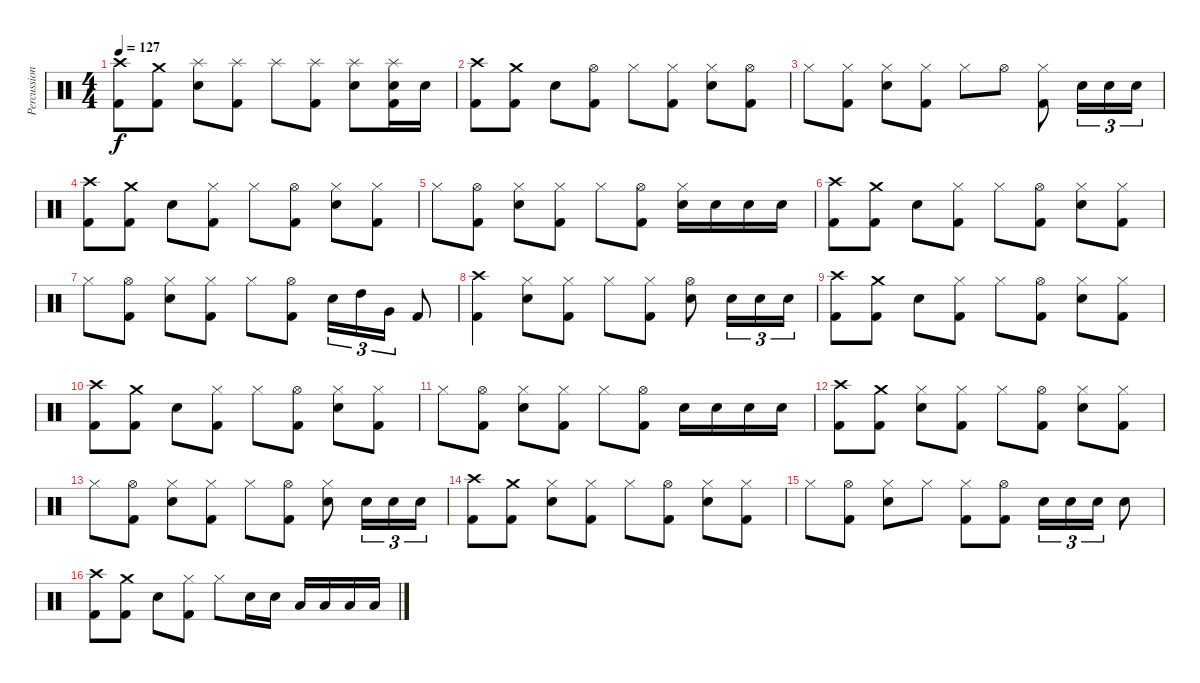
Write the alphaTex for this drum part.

\track ("Percussion" "Percussion") {instrument percussion}
\staff {score}
\articulation defaults
\ts (4 4)
\tempo 127
\clef neutral
\ks c
("Kick (hit) 2" "Crash high (hit)").8{dy f} ("Kick (hit) 2" "Crash medium (hit)").8 ("Snare (hit) 2" "Splash (hit)").8 ("Kick (hit) 2" "Splash (hit)").8 "Splash (hit)".8 ("Kick (hit) 2" "Splash (hit)").8 ("Snare (hit) 2" "Splash (hit)").8 ("Snare (hit) 2" "Kick (hit) 2" "Splash (hit)").16 "Snare (hit) 2".16 |
("Kick (hit) 2" "Crash high (hit)").8 ("Kick (hit) 2" "Crash medium (hit)").8 "Snare (hit) 2".8 ("Kick (hit) 2" "Hi-Hat (open)").8 "Hi-Hat (closed)".8 ("Kick (hit) 2" "Hi-Hat (closed)").8 ("Snare (hit) 2" "Hi-Hat (closed)").8 ("Kick (hit) 2" "Hi-Hat (open)").8 |
"Hi-Hat (closed)".8 ("Kick (hit) 2" "Hi-Hat (closed)").8 ("Snare (hit) 2" "Hi-Hat (closed)").8 ("Kick (hit) 2" "Hi-Hat (closed)").8 "Hi-Hat (closed)".8 "Hi-Hat (open)".8 ("Kick (hit) 2" "Hi-Hat (closed)").8 "Snare (hit) 2".16{tu (3 2)} "Snare (hit) 2".16{tu (3 2)} "Snare (hit) 2".16{tu (3 2)} |
("Kick (hit) 2" "Crash high (hit)").8 ("Kick (hit) 2" "Crash medium (hit)").8 "Snare (hit) 2".8 ("Kick (hit) 2" "Hi-Hat (closed)").8 "Hi-Hat (closed)".8 ("Kick (hit) 2" "Hi-Hat (open)").8 ("Snare (hit) 2" "Hi-Hat (closed)").8 ("Kick (hit) 2" "Hi-Hat (closed)").8 |
"Hi-Hat (closed)".8 ("Kick (hit) 2" "Hi-Hat (open)").8 ("Snare (hit) 2" "Hi-Hat (closed)").8 ("Kick (hit) 2" "Hi-Hat (closed)").8 "Hi-Hat (closed)".8 ("Kick (hit) 2" "Hi-Hat (open)").8 ("Snare (hit) 2" "Hi-Hat (closed)").16 "Snare (hit) 2".16 "Snare (hit) 2".16 "Snare (hit) 2".16 |
("Kick (hit) 2" "Crash high (hit)").8 ("Kick (hit) 2" "Crash medium (hit)").8 "Snare (hit) 2".8 ("Kick (hit) 2" "Hi-Hat (closed)").8 "Hi-Hat (closed)".8 ("Kick (hit) 2" "Hi-Hat (open)").8 ("Snare (hit) 2" "Hi-Hat (closed)").8 ("Kick (hit) 2" "Hi-Hat (closed)").8 |
"Hi-Hat (closed)".8 ("Kick (hit) 2" "Hi-Hat (open)").8 ("Snare (hit) 2" "Hi-Hat (closed)").8 ("Kick (hit) 2" "Hi-Hat (closed)").8 "Hi-Hat (closed)".8 ("Kick (hit) 2" "Hi-Hat (open)").8 "Snare (hit) 2".16{tu (3 2)} "High Tom (hit)".16{tu (3 2)} "Very Low Tom (hit)".16{tu (3 2)} "Kick (hit) 2".8 |
("Kick (hit) 2" "Crash high (hit)").4 ("Snare (hit) 2" "Hi-Hat (closed)").8 ("Kick (hit) 2" "Hi-Hat (closed)").8 "Hi-Hat (closed)".8 ("Kick (hit) 2" "Hi-Hat (closed)").8 ("Snare (hit) 2" "Hi-Hat (open)").8 "Snare (hit) 2".16{tu (3 2)} "Snare (hit) 2".16{tu (3 2)} "Snare (hit) 2".16{tu (3 2)} |
("Kick (hit) 2" "Crash high (hit)").8 ("Kick (hit) 2" "Crash medium (hit)").8 "Snare (hit) 2".8 ("Kick (hit) 2" "Hi-Hat (closed)").8 "Hi-Hat (closed)".8 ("Kick (hit) 2" "Hi-Hat (open)").8 ("Snare (hit) 2" "Hi-Hat (closed)").8 ("Kick (hit) 2" "Hi-Hat (closed)").8 |
("Kick (hit) 2" "Crash high (hit)").8 ("Kick (hit) 2" "Crash medium (hit)").8 "Snare (hit) 2".8 ("Kick (hit) 2" "Hi-Hat (closed)").8 "Hi-Hat (closed)".8 ("Kick (hit) 2" "Hi-Hat (open)").8 ("Snare (hit) 2" "Hi-Hat (closed)").8 ("Kick (hit) 2" "Hi-Hat (closed)").8 |
"Hi-Hat (closed)".8 ("Kick (hit) 2" "Hi-Hat (open)").8 ("Snare (hit) 2" "Hi-Hat (closed)").8 ("Kick (hit) 2" "Hi-Hat (closed)").8 "Hi-Hat (closed)".8 ("Kick (hit) 2" "Hi-Hat (open)").8 "Snare (hit) 2".16 "Snare (hit) 2".16 "Snare (hit) 2".16 "Snare (hit) 2".16 |
("Kick (hit) 2" "Crash high (hit)").8 ("Kick (hit) 2" "Crash medium (hit)").8 ("Snare (hit) 2" "Hi-Hat (closed)").8 ("Kick (hit) 2" "Hi-Hat (closed)").8 "Hi-Hat (closed)".8 ("Kick (hit) 2" "Hi-Hat (open)").8 ("Snare (hit) 2" "Hi-Hat (closed)").8 ("Kick (hit) 2" "Hi-Hat (closed)").8 |
"Hi-Hat (closed)".8 ("Kick (hit) 2" "Hi-Hat (open)").8 ("Snare (hit) 2" "Hi-Hat (closed)").8 ("Kick (hit) 2" "Hi-Hat (closed)").8 "Hi-Hat (closed)".8 ("Kick (hit) 2" "Hi-Hat (open)").8 ("Snare (hit) 2" "Hi-Hat (closed)").8 "Snare (hit) 2".16{tu (3 2)} "Snare (hit) 2".16{tu (3 2)} "Snare (hit) 2".16{tu (3 2)} |
("Kick (hit) 2" "Crash high (hit)").8 ("Kick (hit) 2" "Crash medium (hit)").8 ("Snare (hit) 2" "Hi-Hat (closed)").8 ("Kick (hit) 2" "Hi-Hat (closed)").8 "Hi-Hat (closed)".8 ("Kick (hit) 2" "Hi-Hat (open)").8 ("Snare (hit) 2" "Hi-Hat (closed)").8 ("Kick (hit) 2" "Hi-Hat (closed)").8 |
"Hi-Hat (closed)".8 ("Kick (hit) 2" "Hi-Hat (open)").8 ("Snare (hit) 2" "Hi-Hat (closed)").8 "Hi-Hat (closed)".8 ("Kick (hit) 2" "Hi-Hat (closed)").8 ("Kick (hit) 2" "Hi-Hat (open)").8 "Snare (hit) 2".16{tu (3 2)} "Snare (hit) 2".16{tu (3 2)} "Snare (hit) 2".16{tu (3 2)} "Snare (hit) 2".8 |
("Kick (hit) 2" "Crash high (hit)").8 ("Kick (hit) 2" "Crash medium (hit)").8 "Snare (hit) 2".8 ("Kick (hit) 2" "Hi-Hat (closed)").8 "Hi-Hat (closed)".8 "Snare (hit) 2".16 "Snare (hit) 2".16 "Low Tom (hit)".16 "Low Tom (hit)".16 "Low Tom (hit)".16 "Low Tom (hit)".16
